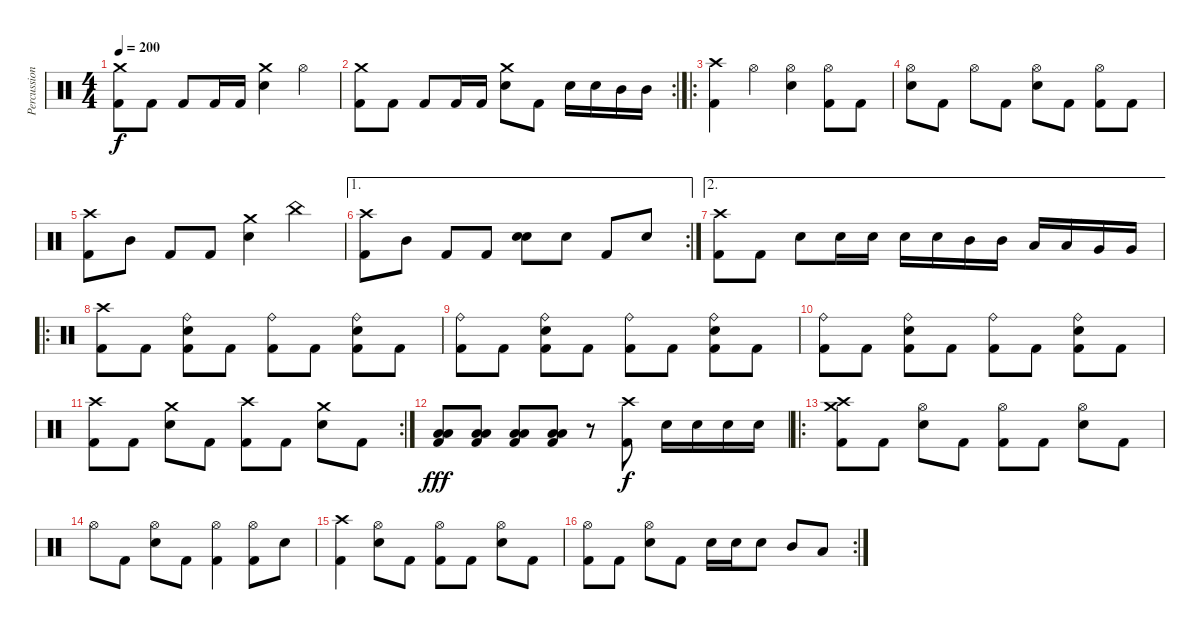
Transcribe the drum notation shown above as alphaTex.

\track ("Percussions" "Percussion") {instrument percussion}
\staff {score}
\articulation defaults
\ts (4 4)
\tempo 200
\clef neutral
\ks c
("Crash medium (hit)" "Kick (hit) 2").8{dy f} "Kick (hit) 2".8 "Kick (hit) 2".8 "Kick (hit) 2".16 "Kick (hit) 2".16 ("Crash medium (hit)" "Snare (hit) 2").4 "Hi-Hat (open)".4 |
\rc 2
("Crash medium (hit)" "Kick (hit) 2").8 "Kick (hit) 2".8 "Kick (hit) 2".8 "Kick (hit) 2".16 "Kick (hit) 2".16 ("Crash medium (hit)" "Snare (hit) 2").8 "Kick (hit) 2".8 "Snare (hit) 2".16 "Snare (hit) 2".16 "Mid Tom (hit)".16 "Mid Tom (hit)".16 |
\ro
("Crash high (hit)" "Kick (hit) 2").4 "Hi-Hat (open)".4 ("Hi-Hat (open)" "Snare (hit) 2").4 ("Hi-Hat (open)" "Kick (hit) 2").8 "Kick (hit) 2".8 |
("Hi-Hat (open)" "Snare (hit) 2").8 "Kick (hit) 2".8 "Hi-Hat (open)".8 "Kick (hit) 2".8 ("Hi-Hat (open)" "Snare (hit) 2").8 "Kick (hit) 2".8 ("Hi-Hat (open)" "Kick (hit) 2").8 "Kick (hit) 2".8 |
("Crash high (hit)" "Kick (hit) 2").8 "Mid Tom (hit)".8 "Kick (hit) 2".8 "Kick (hit) 2".8 ("Crash medium (hit)" "Snare (hit) 2").4 "China (hit)".4 |
\ae 1
\rc 2
("Crash high (hit)" "Kick (hit) 2").8 "Mid Tom (hit)".8 "Kick (hit) 2".8 "Kick (hit) 2".8 ("Snare (hit) 2" "Snare (hit) 2").8{bd 120} "Snare (hit) 2".8 "Kick (hit) 2".8 "Snare (hit) 2".8 |
\ae 2
("Crash high (hit)" "Kick (hit) 2").8 "Kick (hit) 2".8 "Snare (hit) 2".8 "Snare (hit) 2".16 "Snare (hit) 2".16 "Snare (hit) 2".16 "Snare (hit) 2".16 "Mid Tom (hit)".16 "Mid Tom (hit)".16 "Low Tom (hit)".16 "Low Tom (hit)".16 "Very Low Tom (hit)".16 "Very Low Tom (hit)".16 |
\ro
("Crash high (hit)" "Kick (hit) 2").8 "Kick (hit) 2".8 ("Ride (bell)" "Snare (hit) 2" "Kick (hit) 2").8 "Kick (hit) 2".8 ("Ride (bell)" "Kick (hit) 2").8 "Kick (hit) 2".8 ("Ride (bell)" "Snare (hit) 2" "Kick (hit) 2").8 "Kick (hit) 2".8 |
("Ride (bell)" "Kick (hit) 2").8 "Kick (hit) 2".8 ("Ride (bell)" "Snare (hit) 2" "Kick (hit) 2").8 "Kick (hit) 2".8 ("Ride (bell)" "Kick (hit) 2").8 "Kick (hit) 2".8 ("Ride (bell)" "Snare (hit) 2" "Kick (hit) 2").8 "Kick (hit) 2".8 |
("Ride (bell)" "Kick (hit) 2").8 "Kick (hit) 2".8 ("Ride (bell)" "Snare (hit) 2" "Kick (hit) 2").8 "Kick (hit) 2".8 ("Ride (bell)" "Kick (hit) 2").8 "Kick (hit) 2".8 ("Ride (bell)" "Snare (hit) 2" "Kick (hit) 2").8 "Kick (hit) 2".8 |
\rc 2
("Crash high (hit)" "Kick (hit) 2").8 "Kick (hit) 2".8 ("Crash medium (hit)" "Snare (hit) 2").8 "Kick (hit) 2".8 ("Crash high (hit)" "Kick (hit) 2").8 "Kick (hit) 2".8 ("Crash medium (hit)" "Snare (hit) 2").8 "Kick (hit) 2".8 |
("Low Floor Tom (hit)" "Low Floor Tom (hit)" "Kick (hit) 2").8{dy fff} ("Low Floor Tom (hit)" "Low Floor Tom (hit)" "Kick (hit) 2").8 ("Low Floor Tom (hit)" "Low Floor Tom (hit)" "Kick (hit) 2").8 ("Low Floor Tom (hit)" "Low Floor Tom (hit)" "Kick (hit) 2").8 r.8 ("Crash high (hit)" "Kick (hit) 2").8{dy f} "Snare (hit) 2".16 "Snare (hit) 2".16 "Snare (hit) 2".16 "Snare (hit) 2".16 |
\ro
("Crash high (hit)" "Crash medium (hit)" "Kick (hit) 2").8 "Kick (hit) 2".8 ("Hi-Hat (open)" "Snare (hit) 2").8 "Kick (hit) 2".8 ("Hi-Hat (open)" "Kick (hit) 2").8 "Kick (hit) 2".8 ("Hi-Hat (open)" "Snare (hit) 2").8 "Kick (hit) 2".8 |
"Hi-Hat (open)".8 "Kick (hit) 2".8 ("Hi-Hat (open)" "Snare (hit) 2").8 "Kick (hit) 2".8 ("Hi-Hat (open)" "Kick (hit) 2").4 ("Hi-Hat (open)" "Kick (hit) 2").8 "Snare (hit) 2".8 |
("Crash high (hit)" "Kick (hit) 2").4 ("Hi-Hat (open)" "Snare (hit) 2").8 "Kick (hit) 2".8 ("Hi-Hat (open)" "Kick (hit) 2").8 "Kick (hit) 2".8 ("Hi-Hat (open)" "Snare (hit) 2").8 "Kick (hit) 2".8 |
\rc 2
("Hi-Hat (open)" "Kick (hit) 2").8 "Kick (hit) 2".8 ("Hi-Hat (open)" "Snare (hit) 2").8 "Kick (hit) 2".8 "Snare (hit) 2".16 "Snare (hit) 2".16 "Snare (hit) 2".8 "Mid Tom (hit)".8 "Low Tom (hit)".8
